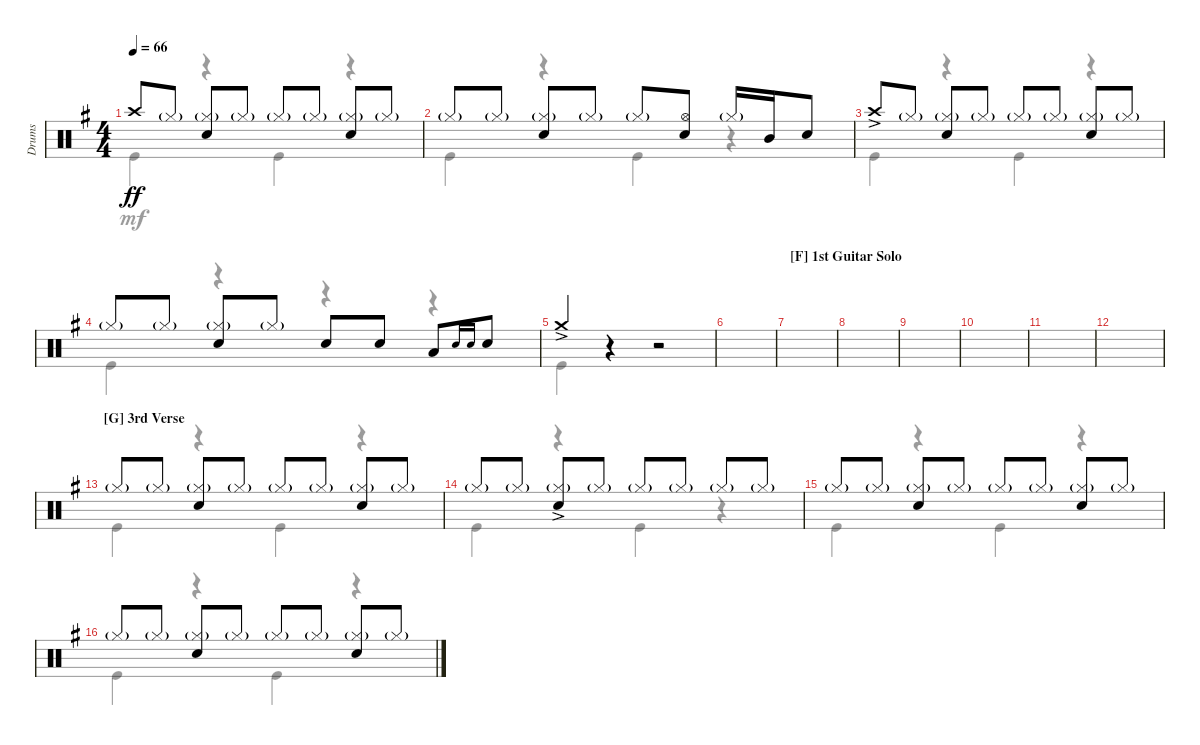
\defaultSystemsLayout 4
\bracketExtendMode groupsimilarinstruments
\otherSystemsTrackNameOrientation horizontal
\track ("Drumkit" "Drums") {instrument percussion}
\staff {score}
\articulation defaults
\voice
\ts (4 4)
\tempo 66
\clef neutral
\ks g "Crash high (hit)".8{dy ff} "Hi-Hat (closed)"{g}.8
("Hi-Hat (closed)"{g} "Snare (hit) 2").8 "Hi-Hat (closed)"{g}.8 "Hi-Hat (closed)"{g}.8 "Hi-Hat (closed)"{g}.8 ("Hi-Hat (closed)"{g} "Snare (hit) 2").8 "Hi-Hat (closed)"{g}.8 |
"Hi-Hat (closed)"{g}.8 "Hi-Hat (closed)"{g}.8 ("Hi-Hat (closed)"{g} "Snare (hit) 2").8 "Hi-Hat (closed)"{g}.8 "Hi-Hat (closed)"{g}.8 ("Hi-Hat (open)" "Snare (hit) 2").8 "Hi-Hat (closed)"{g}.16 "Mid Tom (hit)".16 "Snare (hit) 2".8 |
"Crash high (hit)"{ac}.8 "Hi-Hat (closed)"{g}.8 ("Hi-Hat (closed)"{g} "Snare (hit) 2").8 "Hi-Hat (closed)"{g}.8 "Hi-Hat (closed)"{g}.8 "Hi-Hat (closed)"{g}.8 ("Hi-Hat (closed)"{g} "Snare (hit) 2").8 "Hi-Hat (closed)"{g}.8 |
"Hi-Hat (closed)"{g}.8 "Hi-Hat (closed)"{g}.8 ("Hi-Hat (closed)"{g} "Snare (hit) 2").8 "Hi-Hat (closed)"{g}.8 "Snare (hit) 2".8 "Snare (hit) 2".8 "Low Tom (hit)".8 "Snare (hit) 2".16{gr onbeat} "Snare (hit) 2".16{gr onbeat} "Snare (hit) 2".8 |
"Crash medium (hit)"{ac}.4 r.4 r.2 |
|
\section ("F" "1st Guitar Solo")
|
|
|
|
|
|
\section ("G" "3rd Verse")
"Hi-Hat (closed)"{g}.8 "Hi-Hat (closed)"{g}.8 ("Hi-Hat (closed)"{g} "Snare (hit) 2").8 "Hi-Hat (closed)"{g}.8 "Hi-Hat (closed)"{g}.8 "Hi-Hat (closed)"{g}.8 ("Hi-Hat (closed)"{g} "Snare (hit) 2").8 "Hi-Hat (closed)"{g}.8 |
"Hi-Hat (closed)"{g}.8 "Hi-Hat (closed)"{g}.8 ("Hi-Hat (closed)"{g} "Snare (hit) 2"{ac}).8 "Hi-Hat (closed)"{g}.8 "Hi-Hat (closed)"{g}.8 "Hi-Hat (closed)"{g}.8 "Hi-Hat (closed)"{g}.8 "Hi-Hat (closed)"{g}.8 |
"Hi-Hat (closed)"{g}.8 "Hi-Hat (closed)"{g}.8 ("Hi-Hat (closed)"{g} "Snare (hit) 2").8 "Hi-Hat (closed)"{g}.8 "Hi-Hat (closed)"{g}.8 "Hi-Hat (closed)"{g}.8 ("Hi-Hat (closed)"{g} "Snare (hit) 2").8 "Hi-Hat (closed)"{g}.8 |
"Hi-Hat (closed)"{g}.8 "Hi-Hat (closed)"{g}.8 ("Hi-Hat (closed)"{g} "Snare (hit) 2").8 "Hi-Hat (closed)"{g}.8 "Hi-Hat (closed)"{g}.8 "Hi-Hat (closed)"{g}.8 ("Hi-Hat (closed)"{g} "Snare (hit) 2").8 "Hi-Hat (closed)"{g}.8
\voice
\clef neutral
\ottava regular
\simile none
\ks g "Kick (hit)".4{dy mf}
r.4 "Kick (hit)".4 r.4 |
"Kick (hit)".4 r.4 "Kick (hit)".4 r.4 |
"Kick (hit)".4 r.4 "Kick (hit)".4 r.4 |
"Kick (hit)".4 r.4 r.4 r.4 |
"Kick (hit)".4 r.4 r.2 |
|
|
|
|
|
|
|
"Kick (hit)".4 r.4 "Kick (hit)".4 r.4 |
"Kick (hit)".4 r.4 "Kick (hit)".4 r.4 |
"Kick (hit)".4 r.4 "Kick (hit)".4 r.4 |
"Kick (hit)".4 r.4 "Kick (hit)".4 r.4
